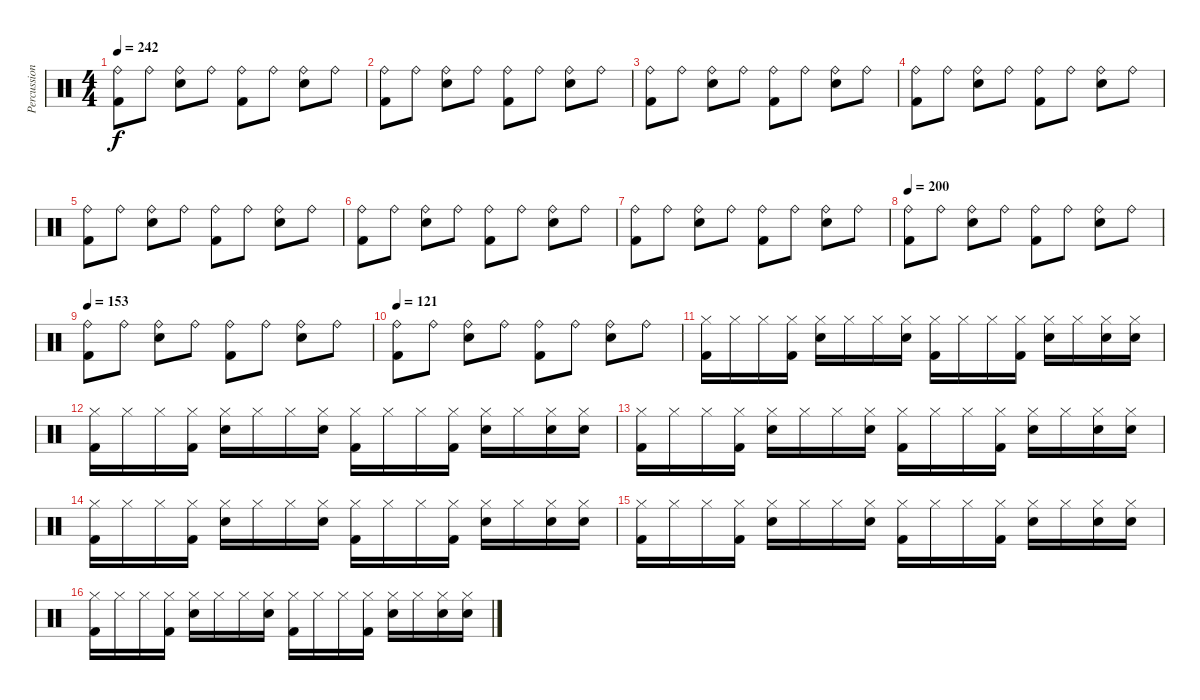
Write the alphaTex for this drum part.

\track ("Percussions" "Percussion") {instrument percussion}
\staff {score}
\articulation defaults
\ts (4 4)
\tempo 242
\clef neutral
\ks c
("Ride (bell)" "Kick (hit) 2").8{dy f} "Ride (bell)".8 ("Ride (bell)" "Electric Snare (hit)").8 "Ride (bell)".8 ("Ride (bell)" "Kick (hit) 2").8 "Ride (bell)".8 ("Ride (bell)" "Electric Snare (hit)").8 "Ride (bell)".8 |
("Ride (bell)" "Kick (hit) 2").8 "Ride (bell)".8 ("Ride (bell)" "Electric Snare (hit)").8 "Ride (bell)".8 ("Ride (bell)" "Kick (hit) 2").8 "Ride (bell)".8 ("Ride (bell)" "Electric Snare (hit)").8 "Ride (bell)".8 |
("Ride (bell)" "Kick (hit) 2").8 "Ride (bell)".8 ("Ride (bell)" "Electric Snare (hit)").8 "Ride (bell)".8 ("Ride (bell)" "Kick (hit) 2").8 "Ride (bell)".8 ("Ride (bell)" "Electric Snare (hit)").8 "Ride (bell)".8 |
("Ride (bell)" "Kick (hit) 2").8 "Ride (bell)".8 ("Ride (bell)" "Electric Snare (hit)").8 "Ride (bell)".8 ("Ride (bell)" "Kick (hit) 2").8 "Ride (bell)".8 ("Ride (bell)" "Electric Snare (hit)").8 "Ride (bell)".8 |
("Ride (bell)" "Kick (hit) 2").8 "Ride (bell)".8 ("Ride (bell)" "Electric Snare (hit)").8 "Ride (bell)".8 ("Ride (bell)" "Kick (hit) 2").8 "Ride (bell)".8 ("Ride (bell)" "Electric Snare (hit)").8 "Ride (bell)".8 |
("Ride (bell)" "Kick (hit) 2").8 "Ride (bell)".8 ("Ride (bell)" "Electric Snare (hit)").8 "Ride (bell)".8 ("Ride (bell)" "Kick (hit) 2").8 "Ride (bell)".8 ("Ride (bell)" "Electric Snare (hit)").8 "Ride (bell)".8 |
("Ride (bell)" "Kick (hit) 2").8 "Ride (bell)".8 ("Ride (bell)" "Electric Snare (hit)").8 "Ride (bell)".8 ("Ride (bell)" "Kick (hit) 2").8 "Ride (bell)".8 ("Ride (bell)" "Electric Snare (hit)").8 "Ride (bell)".8 |
\tempo 200
("Ride (bell)" "Kick (hit) 2").8 "Ride (bell)".8 ("Ride (bell)" "Electric Snare (hit)").8 "Ride (bell)".8 ("Ride (bell)" "Kick (hit) 2").8 "Ride (bell)".8 ("Ride (bell)" "Electric Snare (hit)").8 "Ride (bell)".8 |
\tempo 153
("Ride (bell)" "Kick (hit) 2").8 "Ride (bell)".8 ("Ride (bell)" "Electric Snare (hit)").8 "Ride (bell)".8 ("Ride (bell)" "Kick (hit) 2").8 "Ride (bell)".8 ("Ride (bell)" "Electric Snare (hit)").8 "Ride (bell)".8 |
\tempo 121
("Ride (bell)" "Kick (hit) 2").8 "Ride (bell)".8 ("Ride (bell)" "Electric Snare (hit)").8 "Ride (bell)".8 ("Ride (bell)" "Kick (hit) 2").8 "Ride (bell)".8 ("Ride (bell)" "Electric Snare (hit)").8 "Ride (bell)".8 |
("Hi-Hat (closed)" "Kick (hit) 2").16 "Hi-Hat (closed)".16 "Hi-Hat (closed)".16 ("Hi-Hat (closed)" "Kick (hit) 2").16 ("Hi-Hat (closed)" "Electric Snare (hit)").16 "Hi-Hat (closed)".16 "Hi-Hat (closed)".16 ("Hi-Hat (closed)" "Electric Snare (hit)").16 ("Hi-Hat (closed)" "Kick (hit) 2").16 "Hi-Hat (closed)".16 "Hi-Hat (closed)".16 ("Hi-Hat (closed)" "Kick (hit) 2").16 ("Hi-Hat (closed)" "Electric Snare (hit)").16 "Hi-Hat (closed)".16 ("Hi-Hat (closed)" "Electric Snare (hit)").16 ("Hi-Hat (closed)" "Electric Snare (hit)").16 |
("Hi-Hat (closed)" "Kick (hit) 2").16 "Hi-Hat (closed)".16 "Hi-Hat (closed)".16 ("Hi-Hat (closed)" "Kick (hit) 2").16 ("Hi-Hat (closed)" "Electric Snare (hit)").16 "Hi-Hat (closed)".16 "Hi-Hat (closed)".16 ("Hi-Hat (closed)" "Electric Snare (hit)").16 ("Hi-Hat (closed)" "Kick (hit) 2").16 "Hi-Hat (closed)".16 "Hi-Hat (closed)".16 ("Hi-Hat (closed)" "Kick (hit) 2").16 ("Hi-Hat (closed)" "Electric Snare (hit)").16 "Hi-Hat (closed)".16 ("Hi-Hat (closed)" "Electric Snare (hit)").16 ("Hi-Hat (closed)" "Electric Snare (hit)").16 |
("Hi-Hat (closed)" "Kick (hit) 2").16 "Hi-Hat (closed)".16 "Hi-Hat (closed)".16 ("Hi-Hat (closed)" "Kick (hit) 2").16 ("Hi-Hat (closed)" "Electric Snare (hit)").16 "Hi-Hat (closed)".16 "Hi-Hat (closed)".16 ("Hi-Hat (closed)" "Electric Snare (hit)").16 ("Hi-Hat (closed)" "Kick (hit) 2").16 "Hi-Hat (closed)".16 "Hi-Hat (closed)".16 ("Hi-Hat (closed)" "Kick (hit) 2").16 ("Hi-Hat (closed)" "Electric Snare (hit)").16 "Hi-Hat (closed)".16 ("Hi-Hat (closed)" "Electric Snare (hit)").16 ("Hi-Hat (closed)" "Electric Snare (hit)").16 |
("Hi-Hat (closed)" "Kick (hit) 2").16 "Hi-Hat (closed)".16 "Hi-Hat (closed)".16 ("Hi-Hat (closed)" "Kick (hit) 2").16 ("Hi-Hat (closed)" "Electric Snare (hit)").16 "Hi-Hat (closed)".16 "Hi-Hat (closed)".16 ("Hi-Hat (closed)" "Electric Snare (hit)").16 ("Hi-Hat (closed)" "Kick (hit) 2").16 "Hi-Hat (closed)".16 "Hi-Hat (closed)".16 ("Hi-Hat (closed)" "Kick (hit) 2").16 ("Hi-Hat (closed)" "Electric Snare (hit)").16 "Hi-Hat (closed)".16 ("Hi-Hat (closed)" "Electric Snare (hit)").16 ("Hi-Hat (closed)" "Electric Snare (hit)").16 |
("Hi-Hat (closed)" "Kick (hit) 2").16 "Hi-Hat (closed)".16 "Hi-Hat (closed)".16 ("Hi-Hat (closed)" "Kick (hit) 2").16 ("Hi-Hat (closed)" "Electric Snare (hit)").16 "Hi-Hat (closed)".16 "Hi-Hat (closed)".16 ("Hi-Hat (closed)" "Electric Snare (hit)").16 ("Hi-Hat (closed)" "Kick (hit) 2").16 "Hi-Hat (closed)".16 "Hi-Hat (closed)".16 ("Hi-Hat (closed)" "Kick (hit) 2").16 ("Hi-Hat (closed)" "Electric Snare (hit)").16 "Hi-Hat (closed)".16 ("Hi-Hat (closed)" "Electric Snare (hit)").16 ("Hi-Hat (closed)" "Electric Snare (hit)").16 |
("Hi-Hat (closed)" "Kick (hit) 2").16 "Hi-Hat (closed)".16 "Hi-Hat (closed)".16 ("Hi-Hat (closed)" "Kick (hit) 2").16 ("Hi-Hat (closed)" "Electric Snare (hit)").16 "Hi-Hat (closed)".16 "Hi-Hat (closed)".16 ("Hi-Hat (closed)" "Electric Snare (hit)").16 ("Hi-Hat (closed)" "Kick (hit) 2").16 "Hi-Hat (closed)".16 "Hi-Hat (closed)".16 ("Hi-Hat (closed)" "Kick (hit) 2").16 ("Hi-Hat (closed)" "Electric Snare (hit)").16 "Hi-Hat (closed)".16 ("Hi-Hat (closed)" "Electric Snare (hit)").16 ("Hi-Hat (closed)" "Electric Snare (hit)").16
